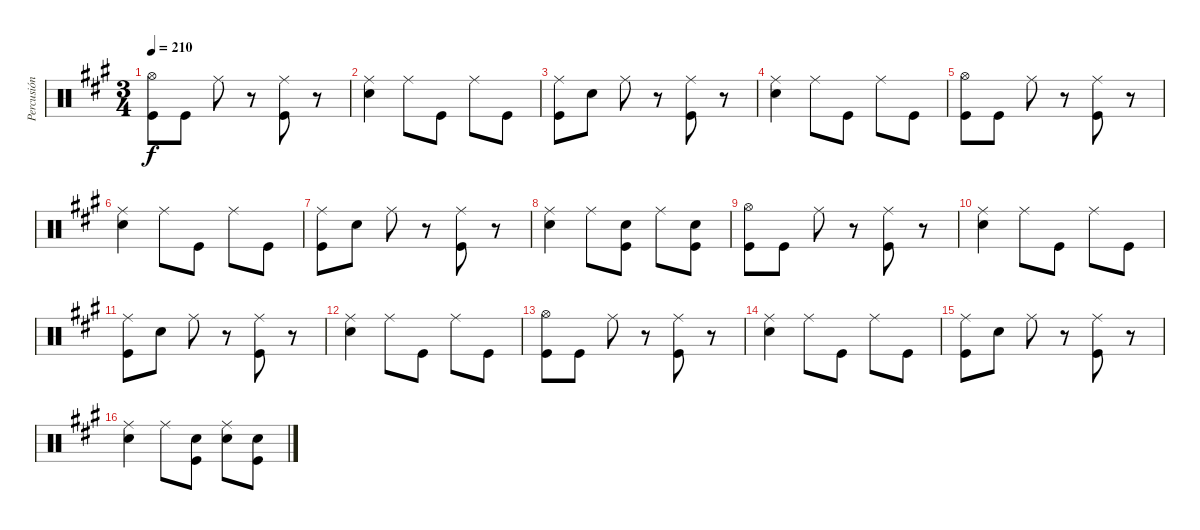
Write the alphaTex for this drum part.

\track ("Percusión" "Percusión") {instrument percussion}
\staff {score}
\articulation defaults
\ts (3 4)
\tempo 210
\clef neutral
\ks a
("Hi-Hat (open)" "Kick (hit)").8{dy f} "Kick (hit)".8 "Ride (middle)".8 r.8 ("Ride (middle)" "Kick (hit)").8 r.8 |
("Ride (middle)" "Electric Snare (hit)").4 "Ride (middle)".8 "Kick (hit)".8 "Ride (middle)".8 "Kick (hit)".8 |
("Ride (middle)" "Kick (hit)").8 "Electric Snare (hit)".8 "Ride (middle)".8 r.8 ("Ride (middle)" "Kick (hit)").8 r.8 |
("Ride (middle)" "Electric Snare (hit)").4 "Ride (middle)".8 "Kick (hit)".8 "Ride (middle)".8 "Kick (hit)".8 |
("Hi-Hat (open)" "Kick (hit)").8 "Kick (hit)".8 "Ride (middle)".8 r.8 ("Ride (middle)" "Kick (hit)").8 r.8 |
("Ride (middle)" "Electric Snare (hit)").4 "Ride (middle)".8 "Kick (hit)".8 "Ride (middle)".8 "Kick (hit)".8 |
("Ride (middle)" "Kick (hit)").8 "Electric Snare (hit)".8 "Ride (middle)".8 r.8 ("Ride (middle)" "Kick (hit)").8 r.8 |
("Ride (middle)" "Electric Snare (hit)").4 "Ride (middle)".8 ("Electric Snare (hit)" "Kick (hit)").8 "Ride (middle)".8 ("Electric Snare (hit)" "Kick (hit)").8 |
("Hi-Hat (open)" "Kick (hit)").8 "Kick (hit)".8 "Ride (middle)".8 r.8 ("Ride (middle)" "Kick (hit)").8 r.8 |
("Ride (middle)" "Electric Snare (hit)").4 "Ride (middle)".8 "Kick (hit)".8 "Ride (middle)".8 "Kick (hit)".8 |
("Ride (middle)" "Kick (hit)").8 "Electric Snare (hit)".8 "Ride (middle)".8 r.8 ("Ride (middle)" "Kick (hit)").8 r.8 |
("Ride (middle)" "Electric Snare (hit)").4 "Ride (middle)".8 "Kick (hit)".8 "Ride (middle)".8 "Kick (hit)".8 |
("Hi-Hat (open)" "Kick (hit)").8 "Kick (hit)".8 "Ride (middle)".8 r.8 ("Ride (middle)" "Kick (hit)").8 r.8 |
("Ride (middle)" "Electric Snare (hit)").4 "Ride (middle)".8 "Kick (hit)".8 "Ride (middle)".8 "Kick (hit)".8 |
("Ride (middle)" "Kick (hit)").8 "Electric Snare (hit)".8 "Ride (middle)".8 r.8 ("Ride (middle)" "Kick (hit)").8 r.8 |
("Ride (middle)" "Electric Snare (hit)").4 "Ride (middle)".8 ("Electric Snare (hit)" "Kick (hit)").8 ("Ride (middle)" "Electric Snare (hit)").8 ("Electric Snare (hit)" "Kick (hit)").8
